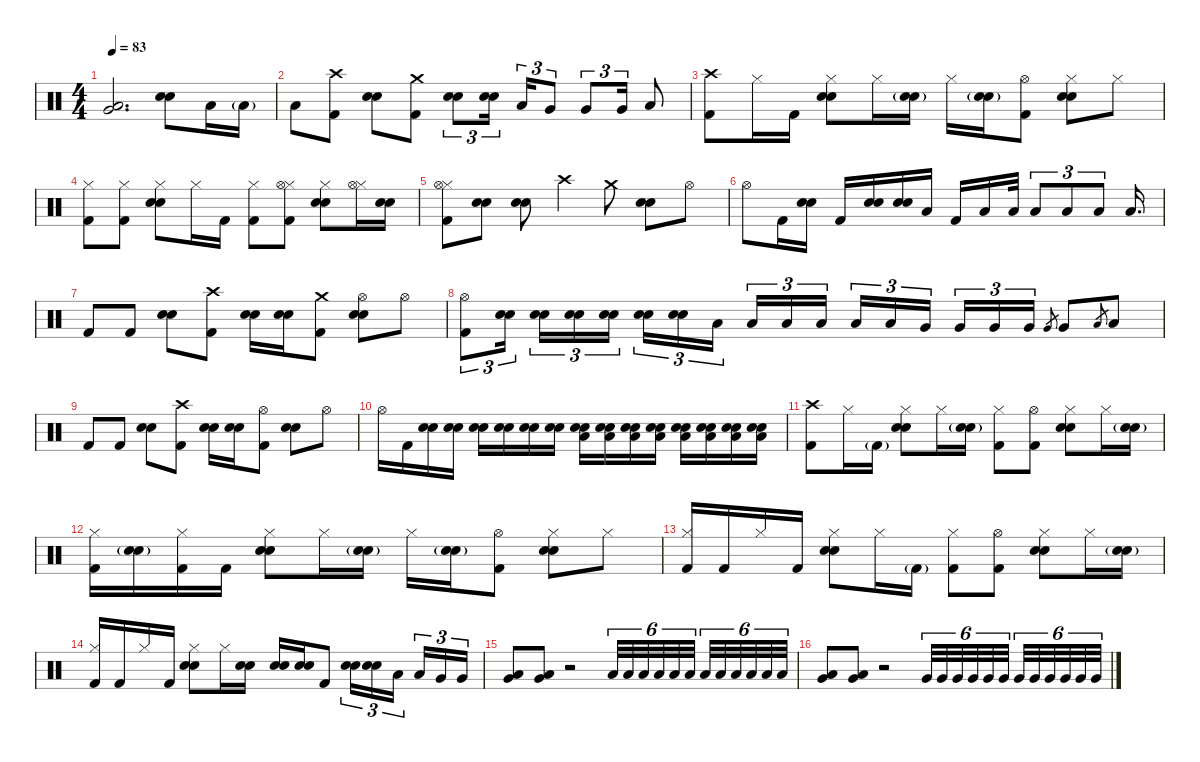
\defaultSystemsLayout 4
\hideDynamics
\bracketExtendMode nobrackets
\singleTrackTrackNamePolicy hidden
\multiTrackTrackNamePolicy hidden
\firstSystemTrackNameMode fullname
\firstSystemTrackNameOrientation horizontal
\otherSystemsTrackNameOrientation horizontal
\track ("Batterie" "drm.") {instrument percussion}
\staff {score}
\articulation defaults
\ts (4 4)
\tempo 83
\clef neutral
\ks c
("Very Low Tom (hit)" "Low Floor Tom (hit)").2{d dy f beam Up} ("Snare (hit) 2" "Snare (hit) 2").8{dy mp beam Down} "Low Floor Tom (hit)".16{dy f beam Down} "Low Floor Tom (hit)"{g}.16{beam Down} |
"Low Floor Tom (hit)".8{beam Down} ("Crash high (hit)" "Kick (hit) 2").8{beam Down} ("Snare (hit) 2" "Snare (hit) 2").8{dy mf beam Down} ("Crash medium (hit)" "Kick (hit) 2").8{dy f beam Down} ("Snare (hit) 2" "Snare (hit) 2").8{tu (3 2) dy mf beam Down} ("Snare (hit) 2" "Snare (hit) 2").16{tu (3 2) beam Down} "Low Tom (hit)".16{tu (3 2) dy f beam Up} "Very Low Tom (hit)".8{tu (3 2) beam Up} "Very Low Tom (hit)".8{tu (3 2) beam Up} "Very Low Tom (hit)".16{tu (3 2) beam Up} "Low Floor Tom (hit)".8{beam Up} |
("Crash high (hit)" "Kick (hit) 2").8{dy mp beam Down} "Hi-Hat (closed)".16{dy f beam Down} "Kick (hit) 2".16{dy mf beam Down} ("Hi-Hat (closed)" "Snare (hit) 2" "Snare (hit) 2").8{dy f beam Down} "Hi-Hat (closed)".16{beam Down} ("Snare (hit) 2"{g} "Snare (hit) 2"{g}).16{dy mf beam Down} "Hi-Hat (closed)".16{dy f beam Down} ("Snare (hit) 2"{g} "Snare (hit) 2"{g}).16{dy mp beam Down} ("Hi-Hat (open)" "Kick (hit) 2").8{beam Down} ("Hi-Hat (closed)" "Snare (hit) 2" "Snare (hit) 2").8{dy f beam Down} "Hi-Hat (closed)".8{beam Down} |
("Hi-Hat (closed)" "Kick (hit) 2").8{beam Down} ("Hi-Hat (closed)" "Kick (hit) 2").8{beam Down} ("Hi-Hat (closed)" "Snare (hit) 2" "Snare (hit) 2").8{beam Down} "Hi-Hat (closed)".16{beam Down} "Kick (hit) 2".16{dy mf beam Down} ("Hi-Hat (closed)" "Kick (hit) 2").8{dy f beam Down} ("Hi-Hat (closed)" "Hi-Hat (open)" "Kick (hit) 2").8{beam Down} ("Hi-Hat (closed)" "Snare (hit) 2" "Snare (hit) 2").8{beam Down} ("Hi-Hat (closed)" "Hi-Hat (open)").16{beam Down} ("Snare (hit) 2" "Snare (hit) 2").16{dy mf beam Down} |
("Hi-Hat (closed)" "Hi-Hat (open)" "Kick (hit) 2").8{dy f beam Down} ("Snare (hit) 2" "Snare (hit) 2").8{dy mf beam Down} ("Snare (hit) 2" "Snare (hit) 2").8{beam Down} "Crash high (hit)".4{dy f beam Down} "Crash medium (hit)".8{beam Down} ("Snare (hit) 2" "Snare (hit) 2").8{dy mf beam Down} "Hi-Hat (open)".8{dy mp beam Down} |
"Hi-Hat (open)".8{dy f beam Down} "Kick (hit) 2".16{dy mf beam Down} ("Snare (hit) 2" "Snare (hit) 2").16{beam Down} "Kick (hit) 2".16{beam Up} ("Snare (hit) 2" "Snare (hit) 2").16{beam Up} ("Snare (hit) 2" "Snare (hit) 2").16{beam Up} "Low Tom (hit)".16{dy f beam Up} "Kick (hit) 2".16{dy mf beam Up} "Low Tom (hit)".16{dy f beam Up} "Low Tom (hit)".32{beam Up} "Low Tom (hit)".8{tu (3 2) beam Up} "Low Floor Tom (hit)".8{tu (3 2) beam Up} "Low Floor Tom (hit)".8{tu (3 2) beam Up} "Low Floor Tom (hit)".16{d beam Up} |
"Kick (hit) 2".8{dy mf beam Up} "Kick (hit) 2".8{beam Up} ("Snare (hit) 2" "Snare (hit) 2").8{beam Down} ("Crash high (hit)" "Kick (hit) 2").8{dy f beam Down} ("Snare (hit) 2" "Snare (hit) 2").16{dy mf beam Down} ("Snare (hit) 2" "Snare (hit) 2").16{beam Down} ("Crash medium (hit)" "Kick (hit) 2").8{dy f beam Down} ("Hi-Hat (open)" "Snare (hit) 2" "Snare (hit) 2").8{dy mp beam Down} "Hi-Hat (open)".8{beam Down} |
("Hi-Hat (open)" "Kick (hit) 2").8{tu (3 2) beam Down} ("Snare (hit) 2" "Snare (hit) 2").16{tu (3 2) dy mf beam Down} ("Snare (hit) 2" "Snare (hit) 2").16{tu (3 2) beam Down} ("Snare (hit) 2" "Snare (hit) 2").16{tu (3 2) beam Down} ("Snare (hit) 2" "Snare (hit) 2").16{tu (3 2) beam Down} ("Snare (hit) 2" "Snare (hit) 2").16{tu (3 2) beam Down} ("Snare (hit) 2" "Snare (hit) 2").16{tu (3 2) beam Down} "Low Tom (hit)".16{tu (3 2) dy f beam Down} "Low Tom (hit)".16{tu (3 2) beam Up} "Low Tom (hit)".16{tu (3 2) beam Up} "Low Tom (hit)".16{tu (3 2) beam Up} "Low Tom (hit)".16{tu (3 2) beam Up} "Low Tom (hit)".16{tu (3 2) beam Up} "Very Low Tom (hit)".16{tu (3 2) beam Up} "Very Low Tom (hit)".16{tu (3 2) beam Up} "Very Low Tom (hit)".16{tu (3 2) beam Up} "Very Low Tom (hit)".16{tu (3 2) beam Up} "Very Low Tom (hit)".8{gr dy mf beam Up} "Very Low Tom (hit)".8{dy f beam Up} "Low Floor Tom (hit)".8{gr dy mf beam Up} "Low Floor Tom (hit)".8{dy f beam Up} |
"Kick (hit) 2".8{dy mf beam Up} "Kick (hit) 2".8{beam Up} ("Snare (hit) 2" "Snare (hit) 2").8{beam Down} ("Crash high (hit)" "Kick (hit) 2").8{dy f beam Down} ("Snare (hit) 2" "Snare (hit) 2").16{dy mf beam Down} ("Snare (hit) 2" "Snare (hit) 2").16{beam Down} ("Hi-Hat (open)" "Kick (hit) 2").8{dy mp beam Down} ("Snare (hit) 2" "Snare (hit) 2").8{dy mf beam Down} "Hi-Hat (open)".8{dy mp beam Down} |
"Hi-Hat (open)".16{dy f beam Down} "Kick (hit) 2".16{dy mf beam Down} ("Snare (hit) 2" "Snare (hit) 2").16{dy pp beam Down} ("Snare (hit) 2" "Snare (hit) 2").16{beam Down} ("Snare (hit) 2" "Snare (hit) 2").16{dy p beam Down} ("Snare (hit) 2" "Snare (hit) 2").16{beam Down} ("Snare (hit) 2" "Snare (hit) 2").16{dy mp beam Down} ("Snare (hit) 2" "Snare (hit) 2").16{beam Down} ("Snare (hit) 2" "Snare (hit) 2" "Low Floor Tom (hit)").16{dy mf beam Down} ("Snare (hit) 2" "Snare (hit) 2" "Low Floor Tom (hit)").16{beam Down} ("Snare (hit) 2" "Snare (hit) 2" "Low Floor Tom (hit)").16{dy f beam Down} ("Snare (hit) 2" "Snare (hit) 2" "Low Floor Tom (hit)").16{beam Down} ("Snare (hit) 2" "Snare (hit) 2" "Low Floor Tom (hit)").16{dy ff beam Down} ("Snare (hit) 2" "Snare (hit) 2" "Low Floor Tom (hit)").16{beam Down} ("Snare (hit) 2" "Snare (hit) 2" "Low Floor Tom (hit)").16{dy fff beam Down} ("Snare (hit) 2" "Snare (hit) 2" "Low Floor Tom (hit)").16{beam Down} |
("Crash high (hit)" "Kick (hit) 2").8{dy mf beam Down} "Hi-Hat (closed)".16{dy f beam Down} "Kick (hit) 2"{g}.16{beam Down} ("Hi-Hat (closed)" "Snare (hit) 2" "Snare (hit) 2").8{beam Down} "Hi-Hat (closed)".16{beam Down} ("Snare (hit) 2"{g} "Snare (hit) 2"{g}).16{beam Down} ("Hi-Hat (closed)" "Kick (hit) 2").8{beam Down} ("Hi-Hat (open)" "Kick (hit) 2").8{dy mp beam Down} ("Hi-Hat (closed)" "Snare (hit) 2" "Snare (hit) 2").8{dy f beam Down} "Hi-Hat (closed)".16{beam Down} ("Snare (hit) 2"{g} "Snare (hit) 2"{g}).16{dy mf beam Down} |
("Hi-Hat (closed)" "Kick (hit) 2").16{dy f beam Down} ("Snare (hit) 2"{g} "Snare (hit) 2"{g}).16{dy mp beam Down} ("Hi-Hat (closed)" "Kick (hit) 2").16{dy f beam Down} "Kick (hit) 2".16{dy mf beam Down} ("Hi-Hat (closed)" "Snare (hit) 2" "Snare (hit) 2").8{dy f beam Down} "Hi-Hat (closed)".16{beam Down} ("Snare (hit) 2"{g} "Snare (hit) 2"{g}).16{dy mf beam Down} "Hi-Hat (closed)".16{dy f beam Down} ("Snare (hit) 2"{g} "Snare (hit) 2"{g}).16{dy mp beam Down} ("Hi-Hat (open)" "Kick (hit) 2").8{beam Down} ("Hi-Hat (closed)" "Snare (hit) 2" "Snare (hit) 2").8{dy f beam Down} "Hi-Hat (closed)".8{beam Down} |
("Hi-Hat (closed)" "Kick (hit) 2").16{beam Up} "Kick (hit) 2".16{dy mf beam Up} "Hi-Hat (closed)".16{dy f beam Up} "Kick (hit) 2".16{dy mf beam Up} ("Hi-Hat (closed)" "Snare (hit) 2" "Snare (hit) 2").8{dy f beam Down} "Hi-Hat (closed)".16{beam Down} "Kick (hit) 2"{g}.16{beam Down} ("Hi-Hat (closed)" "Kick (hit) 2").8{beam Down} ("Hi-Hat (open)" "Kick (hit) 2").8{dy mp beam Down} ("Hi-Hat (closed)" "Snare (hit) 2" "Snare (hit) 2").8{dy f beam Down} "Hi-Hat (closed)".16{beam Down} ("Snare (hit) 2"{g} "Snare (hit) 2"{g}).16{dy mf beam Down} |
("Hi-Hat (closed)" "Kick (hit) 2").16{dy f beam Up} "Kick (hit) 2".16{dy mf beam Up} "Hi-Hat (closed)".16{dy f beam Up} "Kick (hit) 2".16{dy mf beam Up} ("Hi-Hat (closed)" "Snare (hit) 2" "Snare (hit) 2").8{dy f beam Down} "Hi-Hat (closed)".16{beam Down} ("Snare (hit) 2" "Snare (hit) 2").16{dy mf beam Down} ("Snare (hit) 2" "Snare (hit) 2").16{beam Up} ("Snare (hit) 2" "Snare (hit) 2").16{beam Up} "Kick (hit) 2".8{dy f beam Up} ("Snare (hit) 2" "Snare (hit) 2").16{tu (3 2) beam Down} ("Snare (hit) 2" "Snare (hit) 2").16{tu (3 2) beam Down} "Low Tom (hit)".16{tu (3 2) beam Down} "Low Tom (hit)".16{tu (3 2) beam Up} "Very Low Tom (hit)".16{tu (3 2) beam Up} "Very Low Tom (hit)".16{tu (3 2) beam Up} |
("Very Low Tom (hit)" "Low Floor Tom (hit)").8{beam Up} ("Very Low Tom (hit)" "Low Floor Tom (hit)").8{beam Up} r.2{beam Up} "Low Floor Tom (hit)".32{tu (6 4) beam Up} "Low Floor Tom (hit)".32{tu (6 4) dy mf beam Up} "Low Floor Tom (hit)".32{tu (6 4) dy mp beam Up} "Low Floor Tom (hit)".32{tu (6 4) dy p beam Up} "Low Floor Tom (hit)".32{tu (6 4) beam Up} "Low Floor Tom (hit)".32{tu (6 4) beam Up} "Low Floor Tom (hit)".32{tu (6 4) beam Up} "Low Floor Tom (hit)".32{tu (6 4) beam Up} "Low Floor Tom (hit)".32{tu (6 4) dy mp beam Up} "Low Floor Tom (hit)".32{tu (6 4) dy mf beam Up} "Low Floor Tom (hit)".32{tu (6 4) beam Up} "Low Floor Tom (hit)".32{tu (6 4) dy f beam Up} |
("Very Low Tom (hit)" "Low Floor Tom (hit)").8{beam Up} ("Very Low Tom (hit)" "Low Floor Tom (hit)").8{beam Up} r.2{beam Up} "Very Low Tom (hit)".32{tu (6 4) beam Up} "Very Low Tom (hit)".32{tu (6 4) dy mf beam Up} "Very Low Tom (hit)".32{tu (6 4) dy mp beam Up} "Very Low Tom (hit)".32{tu (6 4) dy p beam Up} "Very Low Tom (hit)".32{tu (6 4) beam Up} "Very Low Tom (hit)".32{tu (6 4) beam Up} "Very Low Tom (hit)".32{tu (6 4) beam Up} "Very Low Tom (hit)".32{tu (6 4) beam Up} "Very Low Tom (hit)".32{tu (6 4) dy mp beam Up} "Very Low Tom (hit)".32{tu (6 4) dy mf beam Up} "Very Low Tom (hit)".32{tu (6 4) beam Up} "Very Low Tom (hit)".32{tu (6 4) dy f beam Up}
